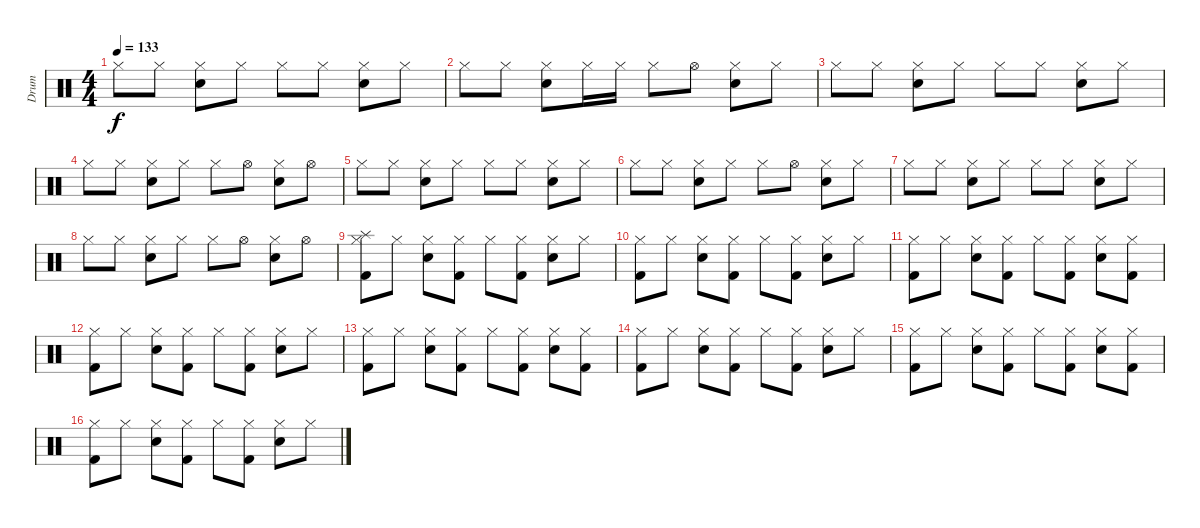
\track ("Drum" "Drum") {instrument percussion}
\staff {score}
\articulation defaults
\ts (4 4)
\tempo 133
\clef neutral
\ks c "Hi-Hat (closed)".8{dy f} "Hi-Hat (closed)".8
("Snare (hit) 2" "Hi-Hat (closed)").8 "Hi-Hat (closed)".8 "Hi-Hat (closed)".8 "Hi-Hat (closed)".8 ("Snare (hit) 2" "Hi-Hat (closed)").8 "Hi-Hat (closed)".8 |
"Hi-Hat (closed)".8 "Hi-Hat (closed)".8 ("Snare (hit) 2" "Hi-Hat (closed)").8 "Hi-Hat (closed)".16 "Hi-Hat (closed)".16 "Hi-Hat (closed)".8 "Hi-Hat (open)".8 ("Snare (hit) 2" "Hi-Hat (closed)").8 "Hi-Hat (closed)".8 |
"Hi-Hat (closed)".8 "Hi-Hat (closed)".8 ("Snare (hit) 2" "Hi-Hat (closed)").8 "Hi-Hat (closed)".8 "Hi-Hat (closed)".8 "Hi-Hat (closed)".8 ("Snare (hit) 2" "Hi-Hat (closed)").8 "Hi-Hat (closed)".8 |
"Hi-Hat (closed)".8 "Hi-Hat (closed)".8 ("Snare (hit) 2" "Hi-Hat (closed)").8 "Hi-Hat (closed)".8 "Hi-Hat (closed)".8 "Hi-Hat (open)".8 ("Snare (hit) 2" "Hi-Hat (closed)").8 "Hi-Hat (open)".8 |
"Hi-Hat (closed)".8 "Hi-Hat (closed)".8 ("Snare (hit) 2" "Hi-Hat (closed)").8 "Hi-Hat (closed)".8 "Hi-Hat (closed)".8 "Hi-Hat (closed)".8 ("Snare (hit) 2" "Hi-Hat (closed)").8 "Hi-Hat (closed)".8 |
"Hi-Hat (closed)".8 "Hi-Hat (closed)".8 ("Snare (hit) 2" "Hi-Hat (closed)").8 "Hi-Hat (closed)".8 "Hi-Hat (closed)".8 "Hi-Hat (open)".8 ("Snare (hit) 2" "Hi-Hat (closed)").8 "Hi-Hat (closed)".8 |
"Hi-Hat (closed)".8 "Hi-Hat (closed)".8 ("Snare (hit) 2" "Hi-Hat (closed)").8 "Hi-Hat (closed)".8 "Hi-Hat (closed)".8 "Hi-Hat (closed)".8 ("Snare (hit) 2" "Hi-Hat (closed)").8 "Hi-Hat (closed)".8 |
"Hi-Hat (closed)".8 "Hi-Hat (closed)".8 ("Snare (hit) 2" "Hi-Hat (closed)").8 "Hi-Hat (closed)".8 "Hi-Hat (closed)".8 "Hi-Hat (open)".8 ("Snare (hit) 2" "Hi-Hat (closed)").8 "Hi-Hat (open)".8 |
("Splash (hit)" "Hi-Hat (closed)" "Kick (hit) 2").8 "Hi-Hat (closed)".8 ("Snare (hit) 2" "Hi-Hat (closed)").8 ("Hi-Hat (closed)" "Kick (hit) 2").8 "Hi-Hat (closed)".8 ("Hi-Hat (closed)" "Kick (hit) 2").8 ("Snare (hit) 2" "Hi-Hat (closed)").8 "Hi-Hat (closed)".8 |
("Hi-Hat (closed)" "Kick (hit) 2").8 "Hi-Hat (closed)".8 ("Snare (hit) 2" "Hi-Hat (closed)").8 ("Hi-Hat (closed)" "Kick (hit) 2").8 "Hi-Hat (closed)".8 ("Hi-Hat (closed)" "Kick (hit) 2").8 ("Snare (hit) 2" "Hi-Hat (closed)").8 "Hi-Hat (closed)".8 |
("Hi-Hat (closed)" "Kick (hit) 2").8 "Hi-Hat (closed)".8 ("Snare (hit) 2" "Hi-Hat (closed)").8 ("Hi-Hat (closed)" "Kick (hit) 2").8 "Hi-Hat (closed)".8 ("Hi-Hat (closed)" "Kick (hit) 2").8 ("Snare (hit) 2" "Hi-Hat (closed)").8 ("Hi-Hat (closed)" "Kick (hit) 2").8 |
("Hi-Hat (closed)" "Kick (hit) 2").8 "Hi-Hat (closed)".8 ("Snare (hit) 2" "Hi-Hat (closed)").8 ("Hi-Hat (closed)" "Kick (hit) 2").8 "Hi-Hat (closed)".8 ("Hi-Hat (closed)" "Kick (hit) 2").8 ("Snare (hit) 2" "Hi-Hat (closed)").8 "Hi-Hat (closed)".8 |
("Hi-Hat (closed)" "Kick (hit) 2").8 "Hi-Hat (closed)".8 ("Snare (hit) 2" "Hi-Hat (closed)").8 ("Hi-Hat (closed)" "Kick (hit) 2").8 "Hi-Hat (closed)".8 ("Hi-Hat (closed)" "Kick (hit) 2").8 ("Snare (hit) 2" "Hi-Hat (closed)").8 ("Hi-Hat (closed)" "Kick (hit) 2").8 |
("Hi-Hat (closed)" "Kick (hit) 2").8 "Hi-Hat (closed)".8 ("Snare (hit) 2" "Hi-Hat (closed)").8 ("Hi-Hat (closed)" "Kick (hit) 2").8 "Hi-Hat (closed)".8 ("Hi-Hat (closed)" "Kick (hit) 2").8 ("Snare (hit) 2" "Hi-Hat (closed)").8 "Hi-Hat (closed)".8 |
("Hi-Hat (closed)" "Kick (hit) 2").8 "Hi-Hat (closed)".8 ("Snare (hit) 2" "Hi-Hat (closed)").8 ("Hi-Hat (closed)" "Kick (hit) 2").8 "Hi-Hat (closed)".8 ("Hi-Hat (closed)" "Kick (hit) 2").8 ("Snare (hit) 2" "Hi-Hat (closed)").8 ("Hi-Hat (closed)" "Kick (hit) 2").8 |
("Hi-Hat (closed)" "Kick (hit) 2").8 "Hi-Hat (closed)".8 ("Snare (hit) 2" "Hi-Hat (closed)").8 ("Hi-Hat (closed)" "Kick (hit) 2").8 "Hi-Hat (closed)".8 ("Hi-Hat (closed)" "Kick (hit) 2").8 ("Snare (hit) 2" "Hi-Hat (closed)").8 "Hi-Hat (closed)".8
